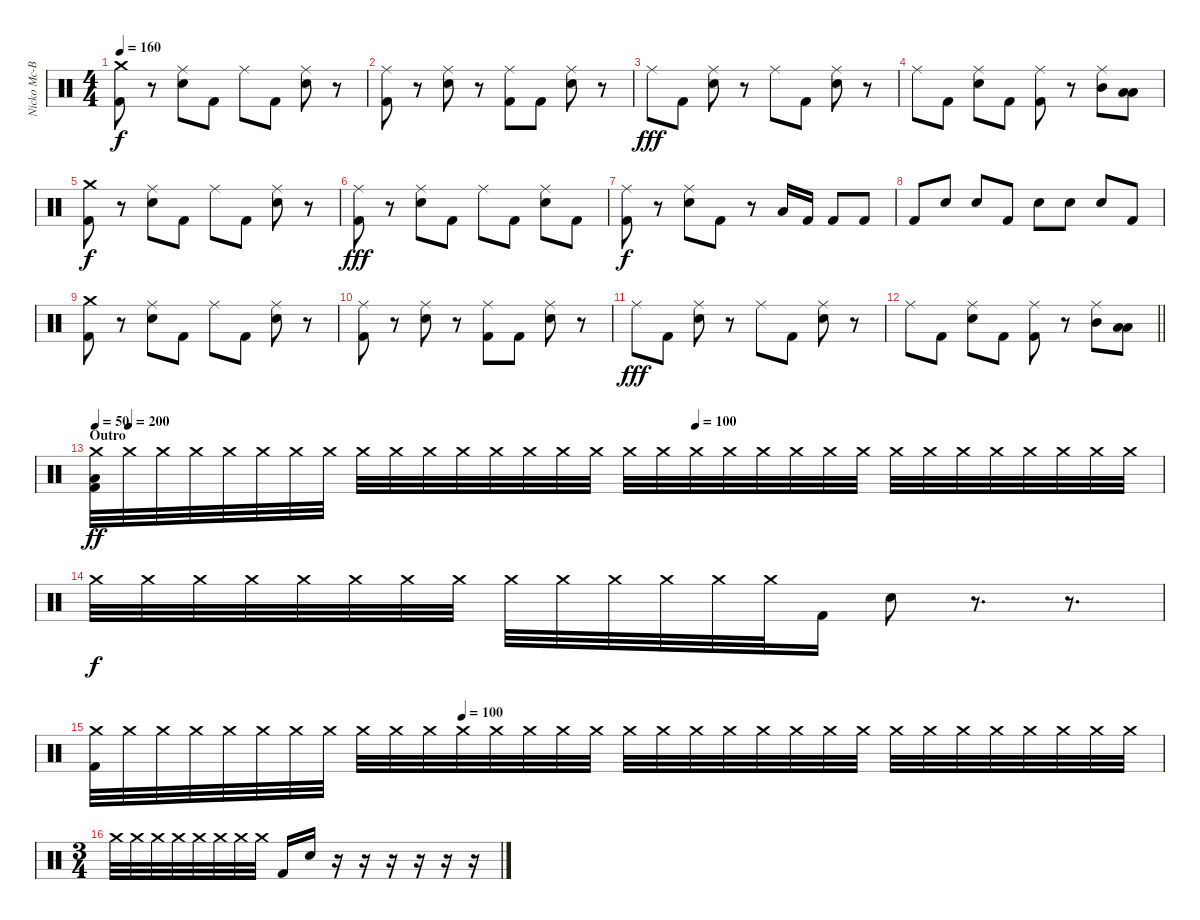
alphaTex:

\track ("Nicko Mc-Brain" "Nicko Mc-B") {instrument percussion}
\staff {score}
\articulation defaults
\ts (4 4)
\tempo 160
\clef neutral
\ks c
("Crash medium (hit)" "Kick (hit) 2").8{dy f} r.8 ("Ride (middle)" "Snare (hit) 2").8 "Kick (hit) 2".8 "Ride (middle)".8 "Kick (hit) 2".8 ("Ride (middle)" "Snare (hit) 2").8 r.8 |
("Ride (middle)" "Kick (hit) 2").8 r.8 ("Ride (middle)" "Snare (hit) 2").8 r.8 ("Ride (middle)" "Kick (hit) 2").8 "Kick (hit) 2".8 ("Ride (middle)" "Snare (hit) 2").8 r.8 |
"Ride (middle)".8{dy fff} "Kick (hit) 2".8 ("Ride (middle)" "Snare (hit) 2").8 r.8 "Ride (middle)".8 "Kick (hit) 2".8 ("Ride (middle)" "Snare (hit) 2").8 r.8 |
"Ride (middle)".8 "Kick (hit) 2".8 ("Ride (middle)" "Snare (hit) 2").8 "Kick (hit) 2".8 ("Ride (middle)" "Kick (hit) 2").8 r.8 ("Ride (middle)" "Mid Tom (hit)").8 ("Low Floor Tom (hit)" "Low Floor Tom (hit)").8 |
("Crash medium (hit)" "Kick (hit) 2").8{dy f} r.8 ("Ride (middle)" "Snare (hit) 2").8 "Kick (hit) 2".8 "Ride (middle)".8 "Kick (hit) 2".8 ("Ride (middle)" "Snare (hit) 2").8 r.8 |
("Ride (middle)" "Kick (hit) 2").8{dy fff} r.8 ("Ride (middle)" "Snare (hit) 2").8 "Kick (hit) 2".8 "Ride (middle)".8 "Kick (hit) 2".8 ("Ride (middle)" "Snare (hit) 2").8 "Kick (hit) 2".8 |
("Ride (middle)" "Kick (hit) 2").8{dy f} r.8 ("Ride (middle)" "Snare (hit) 2").8 "Kick (hit) 2".8 r.8 "Low Floor Tom (hit)".16 "Kick (hit) 2".16 "Kick (hit) 2".8 "Kick (hit) 2".8 |
"Kick (hit) 2".8 "Snare (hit) 2".8 "Snare (hit) 2".8 "Kick (hit) 2".8 "Snare (hit) 2".8 "Snare (hit) 2".8 "Snare (hit) 2".8 "Kick (hit) 2".8 |
("Crash medium (hit)" "Kick (hit) 2").8 r.8 ("Ride (middle)" "Snare (hit) 2").8 "Kick (hit) 2".8 "Ride (middle)".8 "Kick (hit) 2".8 ("Ride (middle)" "Snare (hit) 2").8 r.8 |
("Ride (middle)" "Kick (hit) 2").8 r.8 ("Ride (middle)" "Snare (hit) 2").8 r.8 ("Ride (middle)" "Kick (hit) 2").8 "Kick (hit) 2".8 ("Ride (middle)" "Snare (hit) 2").8 r.8 |
"Ride (middle)".8{dy fff} "Kick (hit) 2".8 ("Ride (middle)" "Snare (hit) 2").8 r.8 "Ride (middle)".8 "Kick (hit) 2".8 ("Ride (middle)" "Snare (hit) 2").8 r.8 |
\barLineRight lightlight "Ride (middle)".8 "Kick (hit) 2".8
("Ride (middle)" "Snare (hit) 2").8 "Kick (hit) 2".8 ("Ride (middle)" "Kick (hit) 2").8 r.8 ("Ride (middle)" "Mid Tom (hit)").8 ("Low Floor Tom (hit)" "Low Floor Tom (hit)").8 |
\section ("" "Outro")
\tempo 50
\tempo (200 0.03125)
\tempo (100 0.5625)
("Crash medium (hit)" "Low Floor Tom (hit)" "Kick (hit) 2").32{dy ff} "Crash medium (hit)".32 "Crash medium (hit)".32 "Crash medium (hit)".32 "Crash medium (hit)".32 "Crash medium (hit)".32 "Crash medium (hit)".32 "Crash medium (hit)".32 "Crash medium (hit)".32 "Crash medium (hit)".32 "Crash medium (hit)".32 "Crash medium (hit)".32 "Crash medium (hit)".32 "Crash medium (hit)".32 "Crash medium (hit)".32 "Crash medium (hit)".32 "Crash medium (hit)".32 "Crash medium (hit)".32 "Crash medium (hit)".32 "Crash medium (hit)".32 "Crash medium (hit)".32 "Crash medium (hit)".32 "Crash medium (hit)".32 "Crash medium (hit)".32 "Crash medium (hit)".32 "Crash medium (hit)".32 "Crash medium (hit)".32 "Crash medium (hit)".32 "Crash medium (hit)".32 "Crash medium (hit)".32 "Crash medium (hit)".32 "Crash medium (hit)".32 |
"Crash medium (hit)".32{dy f} "Crash medium (hit)".32 "Crash medium (hit)".32 "Crash medium (hit)".32 "Crash medium (hit)".32 "Crash medium (hit)".32 "Crash medium (hit)".32 "Crash medium (hit)".32 "Crash medium (hit)".32 "Crash medium (hit)".32 "Crash medium (hit)".32 "Crash medium (hit)".32 "Crash medium (hit)".32 "Crash medium (hit)".32 "Kick (hit) 2".16 "Snare (hit) 2".8 r.8{d} r.8{d} |
\tempo (100 0.34375)
("Crash medium (hit)" "Kick (hit) 2").32 "Crash medium (hit)".32 "Crash medium (hit)".32 "Crash medium (hit)".32 "Crash medium (hit)".32 "Crash medium (hit)".32 "Crash medium (hit)".32 "Crash medium (hit)".32 "Crash medium (hit)".32 "Crash medium (hit)".32 "Crash medium (hit)".32 "Crash medium (hit)".32 "Crash medium (hit)".32 "Crash medium (hit)".32 "Crash medium (hit)".32 "Crash medium (hit)".32 "Crash medium (hit)".32 "Crash medium (hit)".32 "Crash medium (hit)".32 "Crash medium (hit)".32 "Crash medium (hit)".32 "Crash medium (hit)".32 "Crash medium (hit)".32 "Crash medium (hit)".32 "Crash medium (hit)".32 "Crash medium (hit)".32 "Crash medium (hit)".32 "Crash medium (hit)".32 "Crash medium (hit)".32 "Crash medium (hit)".32 "Crash medium (hit)".32 "Crash medium (hit)".32 |
\ts (3 4)
"Crash medium (hit)".32 "Crash medium (hit)".32 "Crash medium (hit)".32 "Crash medium (hit)".32 "Crash medium (hit)".32 "Crash medium (hit)".32 "Crash medium (hit)".32 "Crash medium (hit)".32 "Kick (hit) 2".16 "Snare (hit) 2".16 r.16 r.16 r.16 r.16 r.16 r.16
